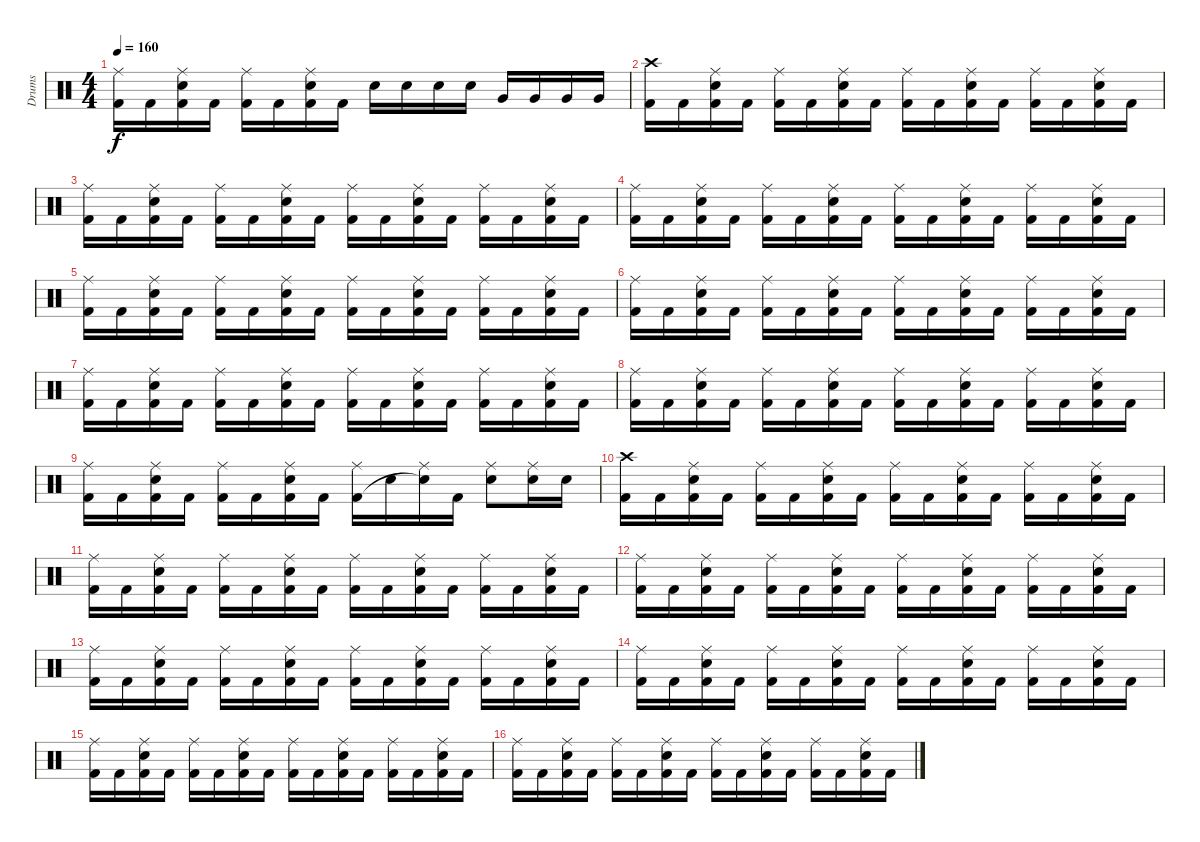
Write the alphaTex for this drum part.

\track ("Drums" "Drums") {instrument percussion}
\staff {score}
\articulation defaults
\ts (4 4)
\tempo 160
\clef neutral
\ks c
("Ride (middle)" "Kick (hit) 2").16{dy f} "Kick (hit) 2".16 ("Ride (middle)" "Electric Snare (hit)" "Kick (hit) 2").16 "Kick (hit) 2".16 ("Ride (middle)" "Kick (hit) 2").16 "Kick (hit) 2".16 ("Ride (middle)" "Electric Snare (hit)" "Kick (hit) 2").16 "Kick (hit) 2".16 "Electric Snare (hit)".16 "Electric Snare (hit)".16 "Electric Snare (hit)".16 "Electric Snare (hit)".16 "Very Low Tom (hit)".16 "Very Low Tom (hit)".16 "Very Low Tom (hit)".16 "Very Low Tom (hit)".16 |
("Crash high (hit)" "Kick (hit) 2").16 "Kick (hit) 2".16 ("Ride (middle)" "Electric Snare (hit)" "Kick (hit) 2").16 "Kick (hit) 2".16 ("Ride (middle)" "Kick (hit) 2").16 "Kick (hit) 2".16 ("Ride (middle)" "Electric Snare (hit)" "Kick (hit) 2").16 "Kick (hit) 2".16 ("Ride (middle)" "Kick (hit) 2").16 "Kick (hit) 2".16 ("Ride (middle)" "Electric Snare (hit)" "Kick (hit) 2").16 "Kick (hit) 2".16 ("Ride (middle)" "Kick (hit) 2").16 "Kick (hit) 2".16 ("Ride (middle)" "Electric Snare (hit)" "Kick (hit) 2").16 "Kick (hit) 2".16 |
("Ride (middle)" "Kick (hit) 2").16 "Kick (hit) 2".16 ("Ride (middle)" "Electric Snare (hit)" "Kick (hit) 2").16 "Kick (hit) 2".16 ("Ride (middle)" "Kick (hit) 2").16 "Kick (hit) 2".16 ("Ride (middle)" "Electric Snare (hit)" "Kick (hit) 2").16 "Kick (hit) 2".16 ("Ride (middle)" "Kick (hit) 2").16 "Kick (hit) 2".16 ("Ride (middle)" "Electric Snare (hit)" "Kick (hit) 2").16 "Kick (hit) 2".16 ("Ride (middle)" "Kick (hit) 2").16 "Kick (hit) 2".16 ("Ride (middle)" "Electric Snare (hit)" "Kick (hit) 2").16 "Kick (hit) 2".16 |
("Ride (middle)" "Kick (hit) 2").16 "Kick (hit) 2".16 ("Ride (middle)" "Electric Snare (hit)" "Kick (hit) 2").16 "Kick (hit) 2".16 ("Ride (middle)" "Kick (hit) 2").16 "Kick (hit) 2".16 ("Ride (middle)" "Electric Snare (hit)" "Kick (hit) 2").16 "Kick (hit) 2".16 ("Ride (middle)" "Kick (hit) 2").16 "Kick (hit) 2".16 ("Ride (middle)" "Electric Snare (hit)" "Kick (hit) 2").16 "Kick (hit) 2".16 ("Ride (middle)" "Kick (hit) 2").16 "Kick (hit) 2".16 ("Ride (middle)" "Electric Snare (hit)" "Kick (hit) 2").16 "Kick (hit) 2".16 |
("Ride (middle)" "Kick (hit) 2").16 "Kick (hit) 2".16 ("Ride (middle)" "Electric Snare (hit)" "Kick (hit) 2").16 "Kick (hit) 2".16 ("Ride (middle)" "Kick (hit) 2").16 "Kick (hit) 2".16 ("Ride (middle)" "Electric Snare (hit)" "Kick (hit) 2").16 "Kick (hit) 2".16 ("Ride (middle)" "Kick (hit) 2").16 "Kick (hit) 2".16 ("Ride (middle)" "Electric Snare (hit)" "Kick (hit) 2").16 "Kick (hit) 2".16 ("Ride (middle)" "Kick (hit) 2").16 "Kick (hit) 2".16 ("Ride (middle)" "Electric Snare (hit)" "Kick (hit) 2").16 "Kick (hit) 2".16 |
("Ride (middle)" "Kick (hit) 2").16 "Kick (hit) 2".16 ("Ride (middle)" "Electric Snare (hit)" "Kick (hit) 2").16 "Kick (hit) 2".16 ("Ride (middle)" "Kick (hit) 2").16 "Kick (hit) 2".16 ("Ride (middle)" "Electric Snare (hit)" "Kick (hit) 2").16 "Kick (hit) 2".16 ("Ride (middle)" "Kick (hit) 2").16 "Kick (hit) 2".16 ("Ride (middle)" "Electric Snare (hit)" "Kick (hit) 2").16 "Kick (hit) 2".16 ("Ride (middle)" "Kick (hit) 2").16 "Kick (hit) 2".16 ("Ride (middle)" "Electric Snare (hit)" "Kick (hit) 2").16 "Kick (hit) 2".16 |
("Ride (middle)" "Kick (hit) 2").16 "Kick (hit) 2".16 ("Ride (middle)" "Electric Snare (hit)" "Kick (hit) 2").16 "Kick (hit) 2".16 ("Ride (middle)" "Kick (hit) 2").16 "Kick (hit) 2".16 ("Ride (middle)" "Electric Snare (hit)" "Kick (hit) 2").16 "Kick (hit) 2".16 ("Ride (middle)" "Kick (hit) 2").16 "Kick (hit) 2".16 ("Ride (middle)" "Electric Snare (hit)" "Kick (hit) 2").16 "Kick (hit) 2".16 ("Ride (middle)" "Kick (hit) 2").16 "Kick (hit) 2".16 ("Ride (middle)" "Electric Snare (hit)" "Kick (hit) 2").16 "Kick (hit) 2".16 |
("Ride (middle)" "Kick (hit) 2").16 "Kick (hit) 2".16 ("Ride (middle)" "Electric Snare (hit)" "Kick (hit) 2").16 "Kick (hit) 2".16 ("Ride (middle)" "Kick (hit) 2").16 "Kick (hit) 2".16 ("Ride (middle)" "Electric Snare (hit)" "Kick (hit) 2").16 "Kick (hit) 2".16 ("Ride (middle)" "Kick (hit) 2").16 "Kick (hit) 2".16 ("Ride (middle)" "Electric Snare (hit)" "Kick (hit) 2").16 "Kick (hit) 2".16 ("Ride (middle)" "Kick (hit) 2").16 "Kick (hit) 2".16 ("Ride (middle)" "Electric Snare (hit)" "Kick (hit) 2").16 "Kick (hit) 2".16 |
("Ride (middle)" "Kick (hit) 2").16 "Kick (hit) 2".16 ("Ride (middle)" "Electric Snare (hit)" "Kick (hit) 2").16 "Kick (hit) 2".16 ("Ride (middle)" "Kick (hit) 2").16 "Kick (hit) 2".16 ("Ride (middle)" "Electric Snare (hit)" "Kick (hit) 2").16 "Kick (hit) 2".16 ("Ride (middle)" "Kick (hit) 2").16 "Electric Snare (hit)".16 ("Ride (middle)" "Snare (hit)"{t}).16 "Kick (hit) 2".16 ("Ride (middle)" "Electric Snare (hit)").8 ("Ride (middle)" "Electric Snare (hit)").16 "Electric Snare (hit)".16 |
("Crash high (hit)" "Kick (hit) 2").16 "Kick (hit) 2".16 ("Ride (middle)" "Electric Snare (hit)" "Kick (hit) 2").16 "Kick (hit) 2".16 ("Ride (middle)" "Kick (hit) 2").16 "Kick (hit) 2".16 ("Ride (middle)" "Electric Snare (hit)" "Kick (hit) 2").16 "Kick (hit) 2".16 ("Ride (middle)" "Kick (hit) 2").16 "Kick (hit) 2".16 ("Ride (middle)" "Electric Snare (hit)" "Kick (hit) 2").16 "Kick (hit) 2".16 ("Ride (middle)" "Kick (hit) 2").16 "Kick (hit) 2".16 ("Ride (middle)" "Electric Snare (hit)" "Kick (hit) 2").16 "Kick (hit) 2".16 |
("Ride (middle)" "Kick (hit) 2").16 "Kick (hit) 2".16 ("Ride (middle)" "Electric Snare (hit)" "Kick (hit) 2").16 "Kick (hit) 2".16 ("Ride (middle)" "Kick (hit) 2").16 "Kick (hit) 2".16 ("Ride (middle)" "Electric Snare (hit)" "Kick (hit) 2").16 "Kick (hit) 2".16 ("Ride (middle)" "Kick (hit) 2").16 "Kick (hit) 2".16 ("Ride (middle)" "Electric Snare (hit)" "Kick (hit) 2").16 "Kick (hit) 2".16 ("Ride (middle)" "Kick (hit) 2").16 "Kick (hit) 2".16 ("Ride (middle)" "Electric Snare (hit)" "Kick (hit) 2").16 "Kick (hit) 2".16 |
("Ride (middle)" "Kick (hit) 2").16 "Kick (hit) 2".16 ("Ride (middle)" "Electric Snare (hit)" "Kick (hit) 2").16 "Kick (hit) 2".16 ("Ride (middle)" "Kick (hit) 2").16 "Kick (hit) 2".16 ("Ride (middle)" "Electric Snare (hit)" "Kick (hit) 2").16 "Kick (hit) 2".16 ("Ride (middle)" "Kick (hit) 2").16 "Kick (hit) 2".16 ("Ride (middle)" "Electric Snare (hit)" "Kick (hit) 2").16 "Kick (hit) 2".16 ("Ride (middle)" "Kick (hit) 2").16 "Kick (hit) 2".16 ("Ride (middle)" "Electric Snare (hit)" "Kick (hit) 2").16 "Kick (hit) 2".16 |
("Ride (middle)" "Kick (hit) 2").16 "Kick (hit) 2".16 ("Ride (middle)" "Electric Snare (hit)" "Kick (hit) 2").16 "Kick (hit) 2".16 ("Ride (middle)" "Kick (hit) 2").16 "Kick (hit) 2".16 ("Ride (middle)" "Electric Snare (hit)" "Kick (hit) 2").16 "Kick (hit) 2".16 ("Ride (middle)" "Kick (hit) 2").16 "Kick (hit) 2".16 ("Ride (middle)" "Electric Snare (hit)" "Kick (hit) 2").16 "Kick (hit) 2".16 ("Ride (middle)" "Kick (hit) 2").16 "Kick (hit) 2".16 ("Ride (middle)" "Electric Snare (hit)" "Kick (hit) 2").16 "Kick (hit) 2".16 |
("Ride (middle)" "Kick (hit) 2").16 "Kick (hit) 2".16 ("Ride (middle)" "Electric Snare (hit)" "Kick (hit) 2").16 "Kick (hit) 2".16 ("Ride (middle)" "Kick (hit) 2").16 "Kick (hit) 2".16 ("Ride (middle)" "Electric Snare (hit)" "Kick (hit) 2").16 "Kick (hit) 2".16 ("Ride (middle)" "Kick (hit) 2").16 "Kick (hit) 2".16 ("Ride (middle)" "Electric Snare (hit)" "Kick (hit) 2").16 "Kick (hit) 2".16 ("Ride (middle)" "Kick (hit) 2").16 "Kick (hit) 2".16 ("Ride (middle)" "Electric Snare (hit)" "Kick (hit) 2").16 "Kick (hit) 2".16 |
("Ride (middle)" "Kick (hit) 2").16 "Kick (hit) 2".16 ("Ride (middle)" "Electric Snare (hit)" "Kick (hit) 2").16 "Kick (hit) 2".16 ("Ride (middle)" "Kick (hit) 2").16 "Kick (hit) 2".16 ("Ride (middle)" "Electric Snare (hit)" "Kick (hit) 2").16 "Kick (hit) 2".16 ("Ride (middle)" "Kick (hit) 2").16 "Kick (hit) 2".16 ("Ride (middle)" "Electric Snare (hit)" "Kick (hit) 2").16 "Kick (hit) 2".16 ("Ride (middle)" "Kick (hit) 2").16 "Kick (hit) 2".16 ("Ride (middle)" "Electric Snare (hit)" "Kick (hit) 2").16 "Kick (hit) 2".16 |
("Ride (middle)" "Kick (hit) 2").16 "Kick (hit) 2".16 ("Ride (middle)" "Electric Snare (hit)" "Kick (hit) 2").16 "Kick (hit) 2".16 ("Ride (middle)" "Kick (hit) 2").16 "Kick (hit) 2".16 ("Ride (middle)" "Electric Snare (hit)" "Kick (hit) 2").16 "Kick (hit) 2".16 ("Ride (middle)" "Kick (hit) 2").16 "Kick (hit) 2".16 ("Ride (middle)" "Electric Snare (hit)" "Kick (hit) 2").16 "Kick (hit) 2".16 ("Ride (middle)" "Kick (hit) 2").16 "Kick (hit) 2".16 ("Ride (middle)" "Electric Snare (hit)" "Kick (hit) 2").16 "Kick (hit) 2".16
